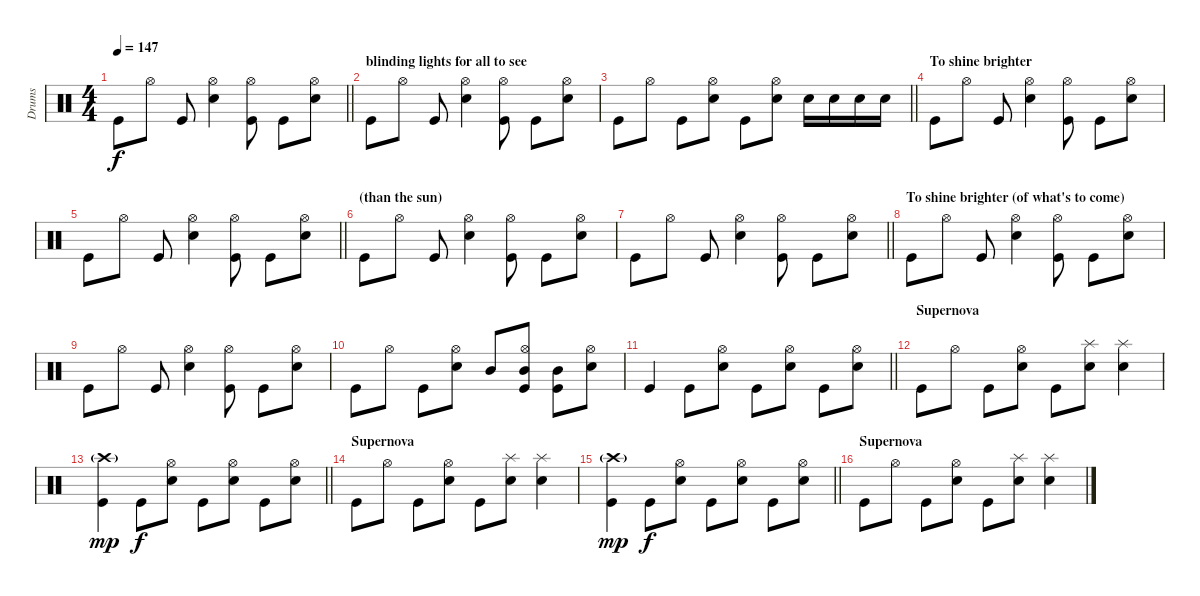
\track ("Drums" "Drums") {instrument percussion}
\staff {score}
\articulation defaults
\ts (4 4)
\tempo 147
\clef neutral
\barLineRight lightlight
\ks c "Kick (hit)".8{dy f} "Hi-Hat (open)".8 "Kick (hit)".8
("Hi-Hat (open)" "Snare (hit) 2").4 ("Hi-Hat (open)" "Kick (hit)").8 "Kick (hit)".8 ("Hi-Hat (open)" "Snare (hit) 2").8 |
\section ("" "blinding lights for all to see")
"Kick (hit)".8 "Hi-Hat (open)".8 "Kick (hit)".8 ("Hi-Hat (open)" "Snare (hit) 2").4 ("Hi-Hat (open)" "Kick (hit)").8 "Kick (hit)".8 ("Hi-Hat (open)" "Snare (hit) 2").8 |
\barLineRight lightlight "Kick (hit)".8 "Hi-Hat (open)".8 "Kick (hit)".8
("Hi-Hat (open)" "Snare (hit) 2").8 "Kick (hit)".8 ("Hi-Hat (open)" "Snare (hit) 2").8 "Snare (hit) 2".16 "Snare (hit) 2".16 "Snare (hit) 2".16 "Snare (hit) 2".16 |
\section ("" "To shine brighter")
"Kick (hit)".8 "Hi-Hat (open)".8 "Kick (hit)".8 ("Hi-Hat (open)" "Snare (hit) 2").4 ("Hi-Hat (open)" "Kick (hit)").8 "Kick (hit)".8 ("Hi-Hat (open)" "Snare (hit) 2").8 |
\barLineRight lightlight "Kick (hit)".8 "Hi-Hat (open)".8 "Kick (hit)".8
("Hi-Hat (open)" "Snare (hit) 2").4 ("Hi-Hat (open)" "Kick (hit)").8 "Kick (hit)".8 ("Hi-Hat (open)" "Snare (hit) 2").8 |
\section ("" "(than the sun) ")
"Kick (hit)".8 "Hi-Hat (open)".8 "Kick (hit)".8 ("Hi-Hat (open)" "Snare (hit) 2").4 ("Hi-Hat (open)" "Kick (hit)").8 "Kick (hit)".8 ("Hi-Hat (open)" "Snare (hit) 2").8 |
\barLineRight lightlight "Kick (hit)".8 "Hi-Hat (open)".8 "Kick (hit)".8
("Hi-Hat (open)" "Snare (hit) 2").4 ("Hi-Hat (open)" "Kick (hit)").8 "Kick (hit)".8 ("Hi-Hat (open)" "Snare (hit) 2").8 |
\section ("" "To shine brighter (of what's to come) ")
"Kick (hit)".8 "Hi-Hat (open)".8 "Kick (hit)".8 ("Hi-Hat (open)" "Snare (hit) 2").4 ("Hi-Hat (open)" "Kick (hit)").8 "Kick (hit)".8 ("Hi-Hat (open)" "Snare (hit) 2").8 |
"Kick (hit)".8 "Hi-Hat (open)".8 "Kick (hit)".8 ("Hi-Hat (open)" "Snare (hit) 2").4 ("Hi-Hat (open)" "Kick (hit)").8 "Kick (hit)".8 ("Hi-Hat (open)" "Snare (hit) 2").8 |
"Kick (hit)".8 "Hi-Hat (open)".8 "Kick (hit)".8 ("Hi-Hat (open)" "Snare (hit) 2").8 "Mid Tom (hit)".8 ("Hi-Hat (open)" "Mid Tom (hit)" "Kick (hit)").8 ("Mid Tom (hit)" "Kick (hit)").8 ("Hi-Hat (open)" "Snare (hit) 2").8 |
\barLineRight lightlight "Kick (hit)".4 "Kick (hit)".8
("Hi-Hat (open)" "Snare (hit) 2").8 "Kick (hit)".8 ("Hi-Hat (open)" "Snare (hit) 2").8 "Kick (hit)".8 ("Hi-Hat (open)" "Snare (hit) 2").8 |
\section ("" "Supernova ")
"Kick (hit)".8 "Hi-Hat (open)".8 "Kick (hit)".8 ("Hi-Hat (open)" "Snare (hit) 2").8 "Kick (hit)".8 ("Splash (hit)" "Snare (hit) 2").8 ("Splash (hit)" "Snare (hit) 2").4 |
\barLineRight lightlight
("Crash high (hit)"{g} "Kick (hit)").4{dy mp} "Kick (hit)".8{dy f} ("Hi-Hat (open)" "Snare (hit) 2").8 "Kick (hit)".8 ("Hi-Hat (open)" "Snare (hit) 2").8 "Kick (hit)".8 ("Hi-Hat (open)" "Snare (hit) 2").8 |
\section ("" "Supernova ")
"Kick (hit)".8 "Hi-Hat (open)".8 "Kick (hit)".8 ("Hi-Hat (open)" "Snare (hit) 2").8 "Kick (hit)".8 ("Splash (hit)" "Snare (hit) 2").8 ("Splash (hit)" "Snare (hit) 2").4 |
\barLineRight lightlight
("Crash high (hit)"{g} "Kick (hit)").4{dy mp} "Kick (hit)".8{dy f} ("Hi-Hat (open)" "Snare (hit) 2").8 "Kick (hit)".8 ("Hi-Hat (open)" "Snare (hit) 2").8 "Kick (hit)".8 ("Hi-Hat (open)" "Snare (hit) 2").8 |
\section ("" "Supernova ")
"Kick (hit)".8 "Hi-Hat (open)".8 "Kick (hit)".8 ("Hi-Hat (open)" "Snare (hit) 2").8 "Kick (hit)".8 ("Splash (hit)" "Snare (hit) 2").8 ("Splash (hit)" "Snare (hit) 2").4
